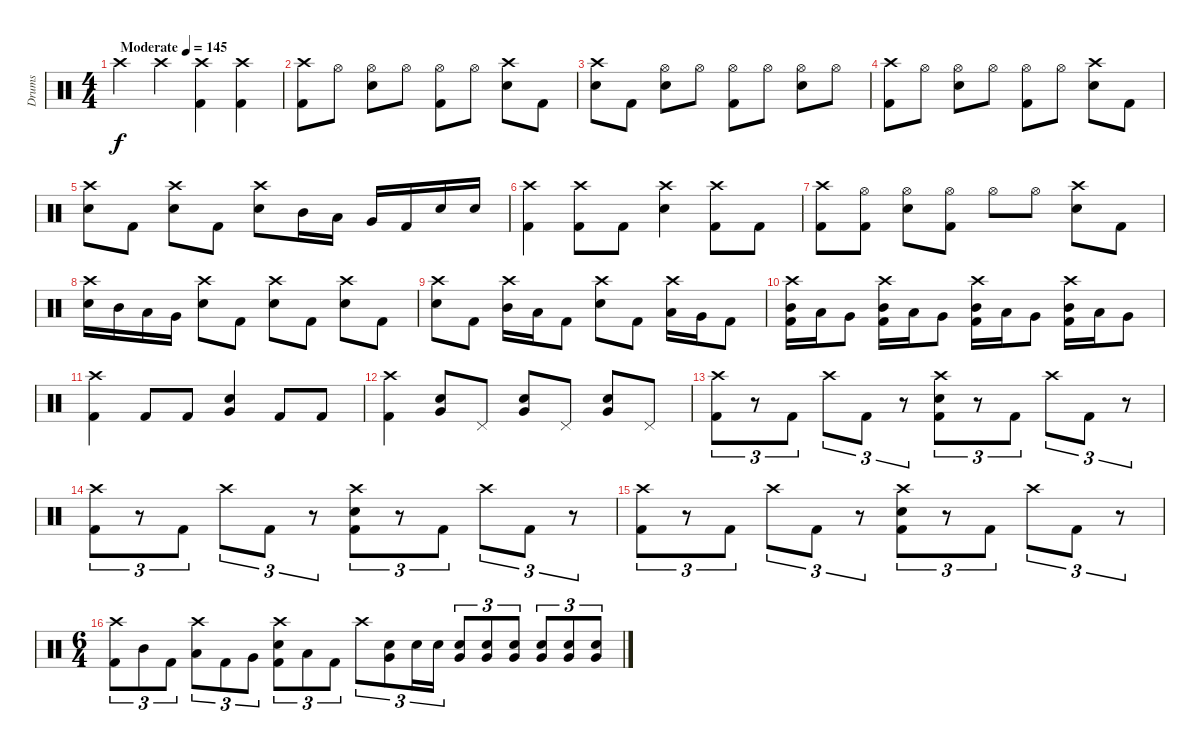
\track ("Drums" "Drums") {instrument percussion}
\staff {score}
\articulation defaults
\ts (4 4)
\tempo (145 "Moderate")
\clef neutral
\ks c "Crash high (hit)".4{dy f} "Crash high (hit)".4
("Crash high (hit)" "Kick (hit) 2").4 ("Crash high (hit)" "Kick (hit) 2").4 |
("Crash high (hit)" "Kick (hit) 2").8 "Hi-Hat (open)".8 ("Hi-Hat (open)" "Snare (hit) 2").8 "Hi-Hat (open)".8 ("Hi-Hat (open)" "Kick (hit) 2").8 "Hi-Hat (open)".8 ("Crash high (hit)" "Snare (hit) 2").8 "Kick (hit) 2".8 |
("Crash high (hit)" "Snare (hit) 2").8 "Kick (hit) 2".8 ("Hi-Hat (open)" "Snare (hit) 2").8 "Hi-Hat (open)".8 ("Hi-Hat (open)" "Kick (hit) 2").8 "Hi-Hat (open)".8 ("Hi-Hat (open)" "Snare (hit) 2").8 "Hi-Hat (open)".8 |
("Crash high (hit)" "Kick (hit) 2").8 "Hi-Hat (open)".8 ("Hi-Hat (open)" "Snare (hit) 2").8 "Hi-Hat (open)".8 ("Hi-Hat (open)" "Kick (hit) 2").8 "Hi-Hat (open)".8 ("Crash high (hit)" "Snare (hit) 2").8 "Kick (hit) 2".8 |
("Crash high (hit)" "Snare (hit) 2").8 "Kick (hit) 2".8 ("Crash high (hit)" "Snare (hit) 2").8 "Kick (hit) 2".8 ("Crash high (hit)" "Snare (hit) 2").8 "Mid Tom (hit)".16 "Low Tom (hit)".16 "Very Low Tom (hit)".16 "Kick (hit) 2".16 "Snare (hit) 2".16 "Snare (hit) 2".16 |
("Crash high (hit)" "Kick (hit) 2").4 ("Crash high (hit)" "Kick (hit) 2").8 "Kick (hit) 2".8 ("Crash high (hit)" "Snare (hit) 2").4 ("Crash high (hit)" "Kick (hit) 2").8 "Kick (hit) 2".8 |
("Crash high (hit)" "Kick (hit) 2").8 ("Hi-Hat (open)" "Kick (hit) 2").8 ("Hi-Hat (open)" "Snare (hit) 2").8 ("Hi-Hat (open)" "Kick (hit) 2").8 "Hi-Hat (open)".8 "Hi-Hat (open)".8 ("Crash high (hit)" "Snare (hit) 2").8 "Kick (hit) 2".8 |
("Crash high (hit)" "Snare (hit) 2").16 "Mid Tom (hit)".16 "Low Tom (hit)".16 "Very Low Tom (hit)".16 ("Crash high (hit)" "Snare (hit) 2").8 "Kick (hit) 2".8 ("Crash high (hit)" "Snare (hit) 2").8 "Kick (hit) 2".8 ("Crash high (hit)" "Snare (hit) 2").8 "Kick (hit) 2".8 |
("Crash high (hit)" "Snare (hit) 2").8 "Kick (hit) 2".8 ("Crash high (hit)" "Mid Tom (hit)").16 "Low Tom (hit)".16 "Kick (hit) 2".8 ("Crash high (hit)" "Snare (hit) 2").8 "Kick (hit) 2".8 ("Crash high (hit)" "Low Tom (hit)").16 "Very Low Tom (hit)".16 "Kick (hit) 2".8 |
("Crash high (hit)" "Mid Tom (hit)" "Kick (hit) 2").16 "Low Tom (hit)".16 "Very Low Tom (hit)".8 ("Crash high (hit)" "Mid Tom (hit)" "Kick (hit) 2").16 "Low Tom (hit)".16 "Very Low Tom (hit)".8 ("Crash high (hit)" "Mid Tom (hit)" "Kick (hit) 2").16 "Low Tom (hit)".16 "Very Low Tom (hit)".8 ("Crash high (hit)" "Mid Tom (hit)" "Kick (hit) 2").16 "Low Tom (hit)".16 "Very Low Tom (hit)".8 |
("Crash high (hit)" "Kick (hit) 2").4 "Kick (hit) 2".8 "Kick (hit) 2".8 ("Very Low Tom (hit)" "Snare (hit) 2").4 "Kick (hit) 2".8 "Kick (hit) 2".8 |
("Crash high (hit)" "Kick (hit) 2").4 ("Very Low Tom (hit)" "Snare (hit) 2").8 "Pedal Hi-Hat (hit)".8 ("Very Low Tom (hit)" "Snare (hit) 2").8 "Pedal Hi-Hat (hit)".8 ("Very Low Tom (hit)" "Snare (hit) 2").8 "Pedal Hi-Hat (hit)".8 |
("Crash high (hit)" "Kick (hit) 2").8{tu (3 2)} r.8{tu (3 2)} "Kick (hit) 2".8{tu (3 2)} "Crash high (hit)".8{tu (3 2)} "Kick (hit) 2".8{tu (3 2)} r.8{tu (3 2)} ("Crash high (hit)" "Snare (hit) 2" "Kick (hit) 2").8{tu (3 2)} r.8{tu (3 2)} "Kick (hit) 2".8{tu (3 2)} "Crash high (hit)".8{tu (3 2)} "Kick (hit) 2".8{tu (3 2)} r.8{tu (3 2)} |
("Crash high (hit)" "Kick (hit) 2").8{tu (3 2)} r.8{tu (3 2)} "Kick (hit) 2".8{tu (3 2)} "Crash high (hit)".8{tu (3 2)} "Kick (hit) 2".8{tu (3 2)} r.8{tu (3 2)} ("Crash high (hit)" "Snare (hit) 2" "Kick (hit) 2").8{tu (3 2)} r.8{tu (3 2)} "Kick (hit) 2".8{tu (3 2)} "Crash high (hit)".8{tu (3 2)} "Kick (hit) 2".8{tu (3 2)} r.8{tu (3 2)} |
("Crash high (hit)" "Kick (hit) 2").8{tu (3 2)} r.8{tu (3 2)} "Kick (hit) 2".8{tu (3 2)} "Crash high (hit)".8{tu (3 2)} "Kick (hit) 2".8{tu (3 2)} r.8{tu (3 2)} ("Crash high (hit)" "Snare (hit) 2" "Kick (hit) 2").8{tu (3 2)} r.8{tu (3 2)} "Kick (hit) 2".8{tu (3 2)} "Crash high (hit)".8{tu (3 2)} "Kick (hit) 2".8{tu (3 2)} r.8{tu (3 2)} |
\ts (6 4)
("Crash high (hit)" "Kick (hit) 2").8{tu (3 2)} "Mid Tom (hit)".8{tu (3 2)} "Kick (hit) 2".8{tu (3 2)} ("Crash high (hit)" "Low Tom (hit)").8{tu (3 2)} "Kick (hit) 2".8{tu (3 2)} "Very Low Tom (hit)".8{tu (3 2)} ("Crash high (hit)" "Snare (hit) 2" "Kick (hit) 2").8{tu (3 2)} "Low Tom (hit)".8{tu (3 2)} "Kick (hit) 2".8{tu (3 2)} "Crash high (hit)".8{tu (3 2)} ("Very Low Tom (hit)" "Snare (hit) 2").8{tu (3 2)} "Snare (hit) 2".16{tu (3 2)} "Snare (hit) 2".16{tu (3 2)} ("Very Low Tom (hit)" "Snare (hit) 2").8{tu (3 2)} ("Very Low Tom (hit)" "Snare (hit) 2").8{tu (3 2)} ("Very Low Tom (hit)" "Snare (hit) 2").8{tu (3 2)} ("Very Low Tom (hit)" "Snare (hit) 2").8{tu (3 2)} ("Very Low Tom (hit)" "Snare (hit) 2").8{tu (3 2)} ("Very Low Tom (hit)" "Snare (hit) 2").8{tu (3 2)}
